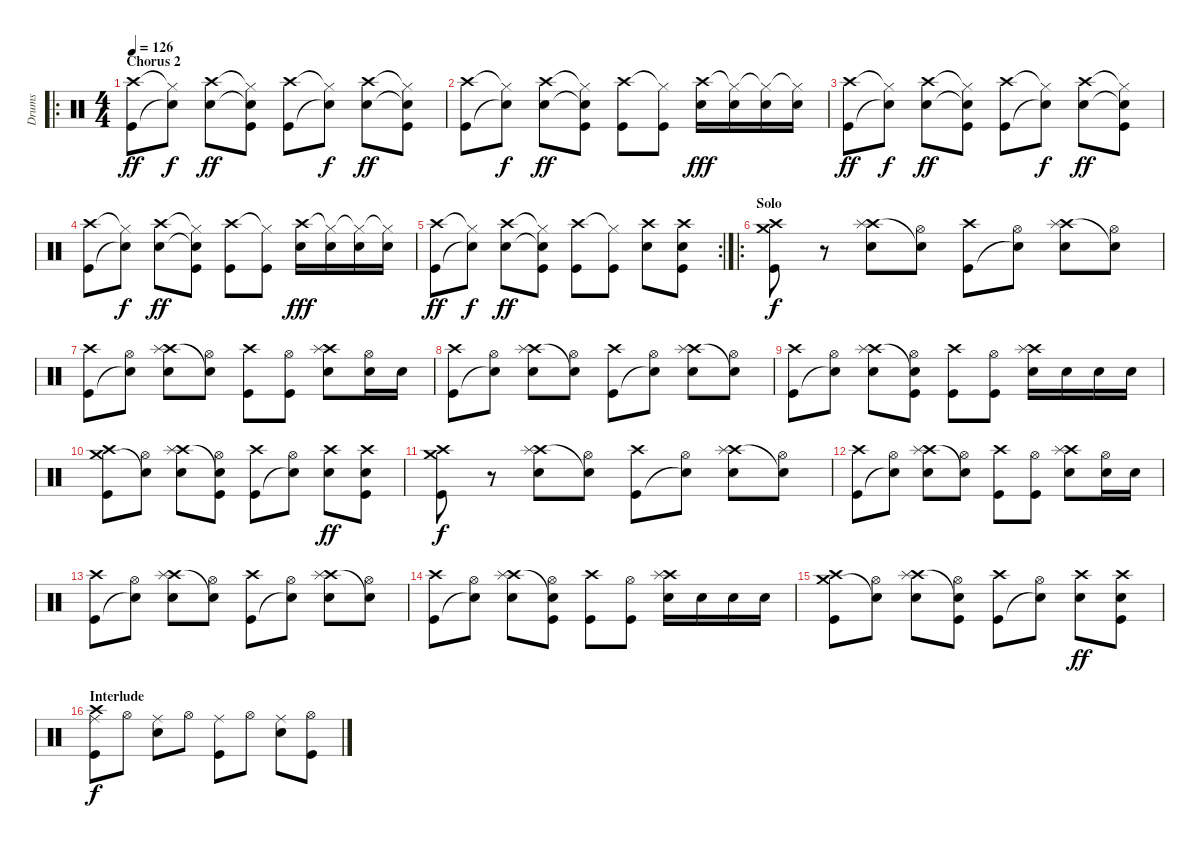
\track ("Drums" "Drums") {instrument percussion}
\staff {score}
\articulation defaults
\ro
\ts (4 4)
\section ("" "Chorus 2")
\tempo 126
\clef neutral
\ks c
("Crash high (hit)" "Kick (hit)").8{dy ff} ("Hi-Hat (closed)"{t} "Snare (hit)"{t}).8{dy f} ("Crash high (hit)" "Electric Snare (hit)").8{dy ff} ("Hi-Hat (closed)"{t} "Snare (hit)"{t} "Kick (hit)").8 ("Crash high (hit)" "Kick (hit)").8 ("Hi-Hat (closed)"{t} "Snare (hit)"{t}).8{dy f} ("Crash high (hit)" "Electric Snare (hit)").8{dy ff} ("Hi-Hat (closed)"{t} "Snare (hit)"{t} "Kick (hit)").8 |
("Crash high (hit)" "Kick (hit)").8 ("Hi-Hat (closed)"{t} "Snare (hit)"{t}).8{dy f} ("Crash high (hit)" "Electric Snare (hit)").8{dy ff} ("Hi-Hat (closed)"{t} "Snare (hit)"{t} "Kick (hit)").8 ("Crash high (hit)" "Kick (hit)").8 ("Hi-Hat (closed)"{t} "Kick (hit)").8 ("Crash high (hit)" "Electric Snare (hit)").16{dy fff} ("Hi-Hat (closed)"{t} "Electric Snare (hit)").16 ("Hi-Hat (closed)"{t} "Electric Snare (hit)").16 ("Hi-Hat (closed)"{t} "Electric Snare (hit)").16 |
("Crash high (hit)" "Kick (hit)").8{dy ff} ("Hi-Hat (closed)"{t} "Snare (hit)"{t}).8{dy f} ("Crash high (hit)" "Electric Snare (hit)").8{dy ff} ("Hi-Hat (closed)"{t} "Snare (hit)"{t} "Kick (hit)").8 ("Crash high (hit)" "Kick (hit)").8 ("Hi-Hat (closed)"{t} "Snare (hit)"{t}).8{dy f} ("Crash high (hit)" "Electric Snare (hit)").8{dy ff} ("Hi-Hat (closed)"{t} "Snare (hit)"{t} "Kick (hit)").8 |
("Crash high (hit)" "Kick (hit)").8 ("Hi-Hat (closed)"{t} "Snare (hit)"{t}).8{dy f} ("Crash high (hit)" "Electric Snare (hit)").8{dy ff} ("Hi-Hat (closed)"{t} "Snare (hit)"{t} "Kick (hit)").8 ("Crash high (hit)" "Kick (hit)").8 ("Hi-Hat (closed)"{t} "Kick (hit)").8 ("Crash high (hit)" "Electric Snare (hit)").16{dy fff} ("Hi-Hat (closed)"{t} "Electric Snare (hit)").16 ("Hi-Hat (closed)"{t} "Electric Snare (hit)").16 ("Hi-Hat (closed)"{t} "Electric Snare (hit)").16 |
\rc 2
("Crash high (hit)" "Kick (hit)").8{dy ff} ("Hi-Hat (closed)"{t} "Snare (hit)"{t}).8{dy f} ("Crash high (hit)" "Electric Snare (hit)").8{dy ff} ("Hi-Hat (closed)"{t} "Snare (hit)"{t} "Kick (hit)").8 ("Crash high (hit)" "Kick (hit)").8 ("Hi-Hat (closed)"{t} "Kick (hit)").8 ("Crash high (hit)" "Electric Snare (hit)").8 ("Crash high (hit)" "Electric Snare (hit)" "Kick (hit)").8 |
\ro
\section ("" "Solo")
("Crash high (hit)" "Crash medium (hit)" "Kick (hit)").8{dy f} r.8 ("Crash high (hit)" "Splash (hit)" "Electric Snare (hit)").8 ("Hi-Hat (open)" "Snare (hit)"{t}).8 ("Crash high (hit)" "Kick (hit)").8 ("Hi-Hat (open)" "Snare (hit)"{t}).8 ("Crash high (hit)" "Splash (hit)" "Electric Snare (hit)").8 ("Hi-Hat (open)" "Snare (hit)"{t}).8 |
("Crash high (hit)" "Kick (hit)").8 ("Hi-Hat (open)" "Snare (hit)"{t}).8 ("Crash high (hit)" "Splash (hit)" "Electric Snare (hit)").8 ("Hi-Hat (open)" "Snare (hit)"{t}).8 ("Crash high (hit)" "Kick (hit)").8 ("Hi-Hat (open)" "Kick (hit)").8 ("Crash high (hit)" "Splash (hit)" "Electric Snare (hit)").8 ("Hi-Hat (open)" "Electric Snare (hit)").16 "Electric Snare (hit)".16 |
("Crash high (hit)" "Kick (hit)").8 ("Hi-Hat (open)" "Snare (hit)"{t}).8 ("Crash high (hit)" "Splash (hit)" "Electric Snare (hit)").8 ("Hi-Hat (open)" "Snare (hit)"{t}).8 ("Crash high (hit)" "Kick (hit)").8 ("Hi-Hat (open)" "Snare (hit)"{t}).8 ("Crash high (hit)" "Splash (hit)" "Electric Snare (hit)").8 ("Hi-Hat (open)" "Snare (hit)"{t}).8 |
("Crash high (hit)" "Kick (hit)").8 ("Hi-Hat (open)" "Snare (hit)"{t}).8 ("Crash high (hit)" "Splash (hit)" "Electric Snare (hit)").8 ("Hi-Hat (open)" "Snare (hit)"{t} "Kick (hit)").8 ("Crash high (hit)" "Kick (hit)").8 ("Hi-Hat (open)" "Kick (hit)").8 ("Crash high (hit)" "Splash (hit)" "Electric Snare (hit)").16 "Electric Snare (hit)".16 "Electric Snare (hit)".16 "Electric Snare (hit)".16 |
("Crash high (hit)" "Crash medium (hit)" "Kick (hit)").8 ("Hi-Hat (open)" "Snare (hit)"{t}).8 ("Crash high (hit)" "Splash (hit)" "Electric Snare (hit)").8 ("Hi-Hat (open)" "Snare (hit)"{t} "Kick (hit)").8 ("Crash high (hit)" "Kick (hit)").8 ("Hi-Hat (open)" "Snare (hit)"{t}).8 ("Crash high (hit)" "Electric Snare (hit)").8{dy ff} ("Crash high (hit)" "Electric Snare (hit)" "Kick (hit)").8 |
("Crash high (hit)" "Crash medium (hit)" "Kick (hit)").8{dy f} r.8 ("Crash high (hit)" "Splash (hit)" "Electric Snare (hit)").8 ("Hi-Hat (open)" "Snare (hit)"{t}).8 ("Crash high (hit)" "Kick (hit)").8 ("Hi-Hat (open)" "Snare (hit)"{t}).8 ("Crash high (hit)" "Splash (hit)" "Electric Snare (hit)").8 ("Hi-Hat (open)" "Snare (hit)"{t}).8 |
("Crash high (hit)" "Kick (hit)").8 ("Hi-Hat (open)" "Snare (hit)"{t}).8 ("Crash high (hit)" "Splash (hit)" "Electric Snare (hit)").8 ("Hi-Hat (open)" "Snare (hit)"{t}).8 ("Crash high (hit)" "Kick (hit)").8 ("Hi-Hat (open)" "Kick (hit)").8 ("Crash high (hit)" "Splash (hit)" "Electric Snare (hit)").8 ("Hi-Hat (open)" "Electric Snare (hit)").16 "Electric Snare (hit)".16 |
("Crash high (hit)" "Kick (hit)").8 ("Hi-Hat (open)" "Snare (hit)"{t}).8 ("Crash high (hit)" "Splash (hit)" "Electric Snare (hit)").8 ("Hi-Hat (open)" "Snare (hit)"{t}).8 ("Crash high (hit)" "Kick (hit)").8 ("Hi-Hat (open)" "Snare (hit)"{t}).8 ("Crash high (hit)" "Splash (hit)" "Electric Snare (hit)").8 ("Hi-Hat (open)" "Snare (hit)"{t}).8 |
("Crash high (hit)" "Kick (hit)").8 ("Hi-Hat (open)" "Snare (hit)"{t}).8 ("Crash high (hit)" "Splash (hit)" "Electric Snare (hit)").8 ("Hi-Hat (open)" "Snare (hit)"{t} "Kick (hit)").8 ("Crash high (hit)" "Kick (hit)").8 ("Hi-Hat (open)" "Kick (hit)").8 ("Crash high (hit)" "Splash (hit)" "Electric Snare (hit)").16 "Electric Snare (hit)".16 "Electric Snare (hit)".16 "Electric Snare (hit)".16 |
("Crash high (hit)" "Crash medium (hit)" "Kick (hit)").8 ("Hi-Hat (open)" "Snare (hit)"{t}).8 ("Crash high (hit)" "Splash (hit)" "Electric Snare (hit)").8 ("Hi-Hat (open)" "Snare (hit)"{t} "Kick (hit)").8 ("Crash high (hit)" "Kick (hit)").8 ("Hi-Hat (open)" "Snare (hit)"{t}).8 ("Crash high (hit)" "Electric Snare (hit)").8{dy ff} ("Crash high (hit)" "Electric Snare (hit)" "Kick (hit)").8 |
\section ("" "Interlude")
("Ride (middle)" "Crash high (hit)" "Kick (hit)").8{dy f} "Hi-Hat (open)".8 ("Ride (middle)" "Electric Snare (hit)").8 "Hi-Hat (open)".8 ("Ride (middle)" "Kick (hit)").8 "Hi-Hat (open)".8 ("Ride (middle)" "Electric Snare (hit)").8 ("Hi-Hat (open)" "Kick (hit)").8
